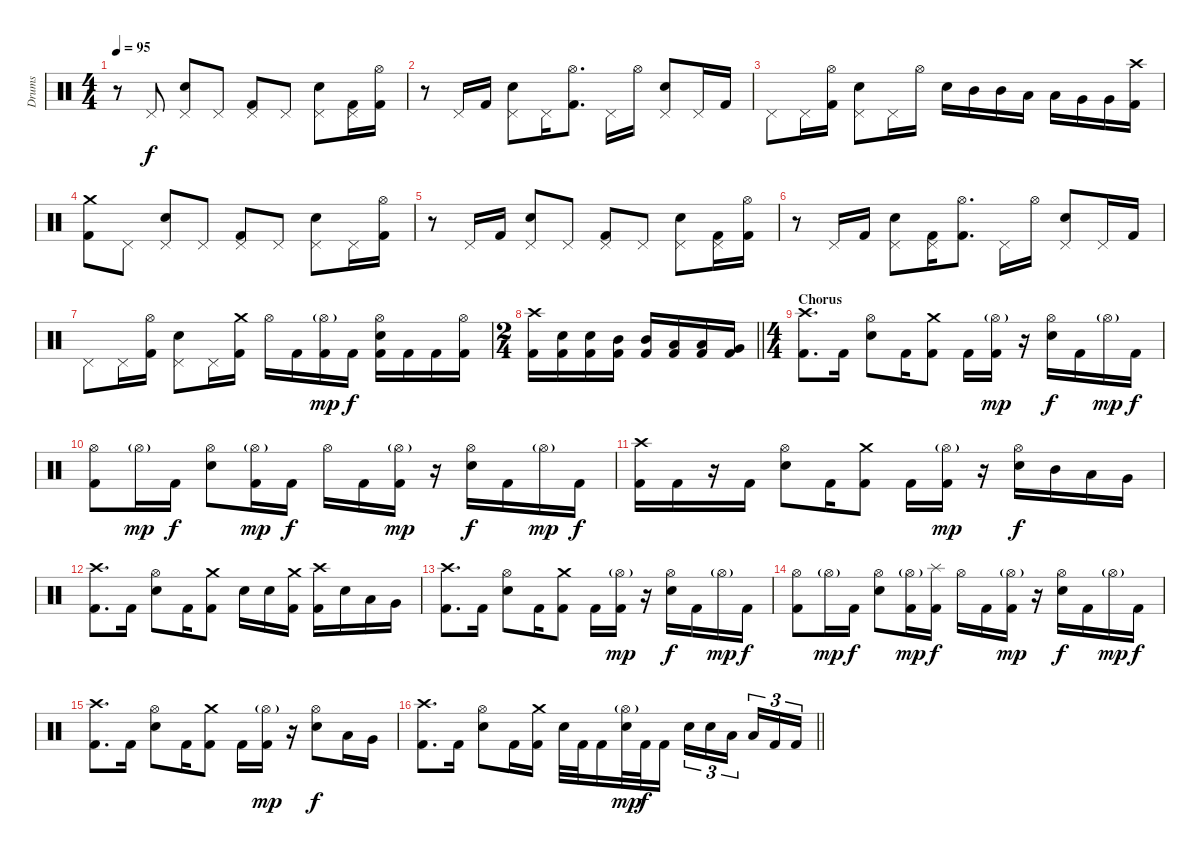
\track ("Drums" "Drums") {instrument percussion}
\staff {score}
\articulation defaults
\ts (4 4)
\tempo 95
\clef neutral
\ks c
r.8{dy f} "Pedal Hi-Hat (hit)".8 ("Pedal Hi-Hat (hit)" "Electric Snare (hit)").8 "Pedal Hi-Hat (hit)".8 ("Pedal Hi-Hat (hit)" "Kick (hit) 2").8 "Pedal Hi-Hat (hit)".8 ("Pedal Hi-Hat (hit)" "Electric Snare (hit)").8 ("Pedal Hi-Hat (hit)" "Kick (hit) 2").16 ("Hi-Hat (open)" "Kick (hit) 2").16 |
r.8 "Pedal Hi-Hat (hit)".16 "Kick (hit) 2".16 ("Pedal Hi-Hat (hit)" "Electric Snare (hit)").8 "Pedal Hi-Hat (hit)".16 ("Hi-Hat (open)" "Kick (hit) 2").8{d} "Pedal Hi-Hat (hit)".16 "Hi-Hat (open)".16 ("Pedal Hi-Hat (hit)" "Electric Snare (hit)").8 "Pedal Hi-Hat (hit)".16 "Kick (hit) 2".16 |
"Pedal Hi-Hat (hit)".8 "Pedal Hi-Hat (hit)".16 ("Hi-Hat (open)" "Kick (hit) 2").16 ("Pedal Hi-Hat (hit)" "Electric Snare (hit)").8 "Pedal Hi-Hat (hit)".16 "Hi-Hat (open)".16 "Electric Snare (hit)".16 "Mid Tom (hit)".16 "Mid Tom (hit)".16 "Low Tom (hit)".16 "Low Tom (hit)".16 "Very Low Tom (hit)".16 "Very Low Tom (hit)".16 ("Crash high (hit)" "Kick (hit) 2").16 |
("Crash medium (hit)" "Kick (hit) 2").8 "Pedal Hi-Hat (hit)".8 ("Pedal Hi-Hat (hit)" "Electric Snare (hit)").8 "Pedal Hi-Hat (hit)".8 ("Pedal Hi-Hat (hit)" "Kick (hit) 2").8 "Pedal Hi-Hat (hit)".8 ("Pedal Hi-Hat (hit)" "Electric Snare (hit)").8 "Pedal Hi-Hat (hit)".16 ("Hi-Hat (open)" "Kick (hit) 2").16 |
r.8 "Pedal Hi-Hat (hit)".16 "Kick (hit) 2".16 ("Pedal Hi-Hat (hit)" "Electric Snare (hit)").8 "Pedal Hi-Hat (hit)".8 ("Pedal Hi-Hat (hit)" "Kick (hit) 2").8 "Pedal Hi-Hat (hit)".8 ("Pedal Hi-Hat (hit)" "Electric Snare (hit)").8 ("Pedal Hi-Hat (hit)" "Kick (hit) 2").16 ("Hi-Hat (open)" "Kick (hit) 2").16 |
r.8 "Pedal Hi-Hat (hit)".16 "Kick (hit) 2".16 ("Pedal Hi-Hat (hit)" "Electric Snare (hit)").8 ("Pedal Hi-Hat (hit)" "Kick (hit) 2").16 ("Hi-Hat (open)" "Kick (hit) 2").8{d} "Pedal Hi-Hat (hit)".16 "Hi-Hat (open)".16 ("Pedal Hi-Hat (hit)" "Electric Snare (hit)").8 "Pedal Hi-Hat (hit)".16 "Kick (hit) 2".16 |
"Pedal Hi-Hat (hit)".8 "Pedal Hi-Hat (hit)".16 ("Hi-Hat (open)" "Kick (hit) 2").16 ("Pedal Hi-Hat (hit)" "Electric Snare (hit)").8 "Pedal Hi-Hat (hit)".16 ("Crash medium (hit)" "Kick (hit) 2").16 "Hi-Hat (open)".16 "Kick (hit) 2".16 ("Hi-Hat (open)"{g} "Kick (hit) 2").16{dy mp} "Kick (hit) 2".16{dy f} ("Hi-Hat (open)" "Electric Snare (hit)" "Kick (hit) 2").16 "Kick (hit) 2".16 "Kick (hit) 2".16 ("Hi-Hat (open)" "Kick (hit) 2").16 |
\ts (2 4)
\barLineRight lightlight
("Crash high (hit)" "Kick (hit) 2").16 ("Electric Snare (hit)" "Kick (hit) 2").16 ("Electric Snare (hit)" "Kick (hit) 2").16 ("Mid Tom (hit)" "Kick (hit) 2").16 ("Mid Tom (hit)" "Kick (hit) 2").16 ("Low Tom (hit)" "Kick (hit) 2").16 ("Low Tom (hit)" "Kick (hit) 2").16 ("Very Low Tom (hit)" "Kick (hit) 2").16 |
\ts (4 4)
\section ("" "Chorus")
("Crash high (hit)" "Kick (hit) 2").8{d} "Kick (hit) 2".16 ("Hi-Hat (open)" "Electric Snare (hit)").8 "Kick (hit) 2".16 ("Crash medium (hit)" "Kick (hit) 2").8 "Kick (hit) 2".16 ("Hi-Hat (open)"{g} "Kick (hit) 2").16{dy mp} r.16 ("Hi-Hat (open)" "Electric Snare (hit)").16{dy f} "Kick (hit) 2".16 "Hi-Hat (open)"{g}.16{dy mp} "Kick (hit) 2".16{dy f} |
("Hi-Hat (open)" "Kick (hit) 2").8 "Hi-Hat (open)"{g}.16{dy mp} "Kick (hit) 2".16{dy f} ("Hi-Hat (open)" "Electric Snare (hit)").8 ("Hi-Hat (open)"{g} "Kick (hit) 2").16{dy mp} "Kick (hit) 2".16{dy f} "Hi-Hat (open)".16 "Kick (hit) 2".16 ("Hi-Hat (open)"{g} "Kick (hit) 2").16{dy mp} r.16 ("Hi-Hat (open)" "Electric Snare (hit)").16{dy f} "Kick (hit) 2".16 "Hi-Hat (open)"{g}.16{dy mp} "Kick (hit) 2".16{dy f} |
("Crash high (hit)" "Kick (hit) 2").16 "Kick (hit) 2".16 r.16 "Kick (hit) 2".16 ("Hi-Hat (open)" "Electric Snare (hit)").8 "Kick (hit) 2".16 ("Crash medium (hit)" "Kick (hit) 2").8 "Kick (hit) 2".16 ("Hi-Hat (open)"{g} "Kick (hit) 2").16{dy mp} r.16 ("Hi-Hat (open)" "Electric Snare (hit)").16{dy f} "Mid Tom (hit)".16 "Low Tom (hit)".16 "Very Low Tom (hit)".16 |
("Crash high (hit)" "Kick (hit) 2").8{d} "Kick (hit) 2".16 ("Hi-Hat (open)" "Electric Snare (hit)").8 "Kick (hit) 2".16 ("Crash medium (hit)" "Kick (hit) 2").8 "Electric Snare (hit)".16 "Electric Snare (hit)".16 ("Crash medium (hit)" "Kick (hit) 2").16 ("Crash high (hit)" "Kick (hit) 2").16 "Electric Snare (hit)".16 "Low Tom (hit)".16 "Very Low Tom (hit)".16 |
("Crash high (hit)" "Kick (hit) 2").8{d} "Kick (hit) 2".16 ("Hi-Hat (open)" "Electric Snare (hit)").8 "Kick (hit) 2".16 ("Crash medium (hit)" "Kick (hit) 2").8 "Kick (hit) 2".16 ("Hi-Hat (open)"{g} "Kick (hit) 2").16{dy mp} r.16 ("Hi-Hat (open)" "Electric Snare (hit)").16{dy f} "Kick (hit) 2".16 "Hi-Hat (open)"{g}.16{dy mp} "Kick (hit) 2".16{dy f} |
("Hi-Hat (open)" "Kick (hit) 2").8 "Hi-Hat (open)"{g}.16{dy mp} "Kick (hit) 2".16{dy f} ("Hi-Hat (open)" "Electric Snare (hit)").8 ("Hi-Hat (open)"{g} "Kick (hit) 2").16{dy mp} ("Splash (hit)" "Kick (hit) 2").16{dy f} "Hi-Hat (open)".16 "Kick (hit) 2".16 ("Hi-Hat (open)"{g} "Kick (hit) 2").16{dy mp} r.16 ("Hi-Hat (open)" "Electric Snare (hit)").16{dy f} "Kick (hit) 2".16 "Hi-Hat (open)"{g}.16{dy mp} "Kick (hit) 2".16{dy f} |
("Crash high (hit)" "Kick (hit) 2").8{d} "Kick (hit) 2".16 ("Hi-Hat (open)" "Electric Snare (hit)").8 "Kick (hit) 2".16 ("Crash medium (hit)" "Kick (hit) 2").8 "Kick (hit) 2".16 ("Hi-Hat (open)"{g} "Kick (hit) 2").16{dy mp} r.16 ("Hi-Hat (open)" "Electric Snare (hit)").8{dy f} "Low Tom (hit)".16 "Very Low Tom (hit)".16 |
\barLineRight lightlight
("Crash high (hit)" "Kick (hit) 2").8{d} "Kick (hit) 2".16 ("Hi-Hat (open)" "Electric Snare (hit)").8 "Kick (hit) 2".16 ("Crash medium (hit)" "Kick (hit) 2").16 "Electric Snare (hit)".32 "Kick (hit) 2".32 "Kick (hit) 2".16 ("Hi-Hat (open)"{g} "Electric Snare (hit)").32{dy mp} "Kick (hit) 2".32{dy f} "Kick (hit) 2".16 "Electric Snare (hit)".16{tu (3 2)} "Electric Snare (hit)".16{tu (3 2)} "Low Tom (hit)".16{tu (3 2) beam splitsecondary} "Low Tom (hit)".16{tu (3 2)} "Kick (hit) 2".16{tu (3 2)} "Kick (hit) 2".16{tu (3 2)}
